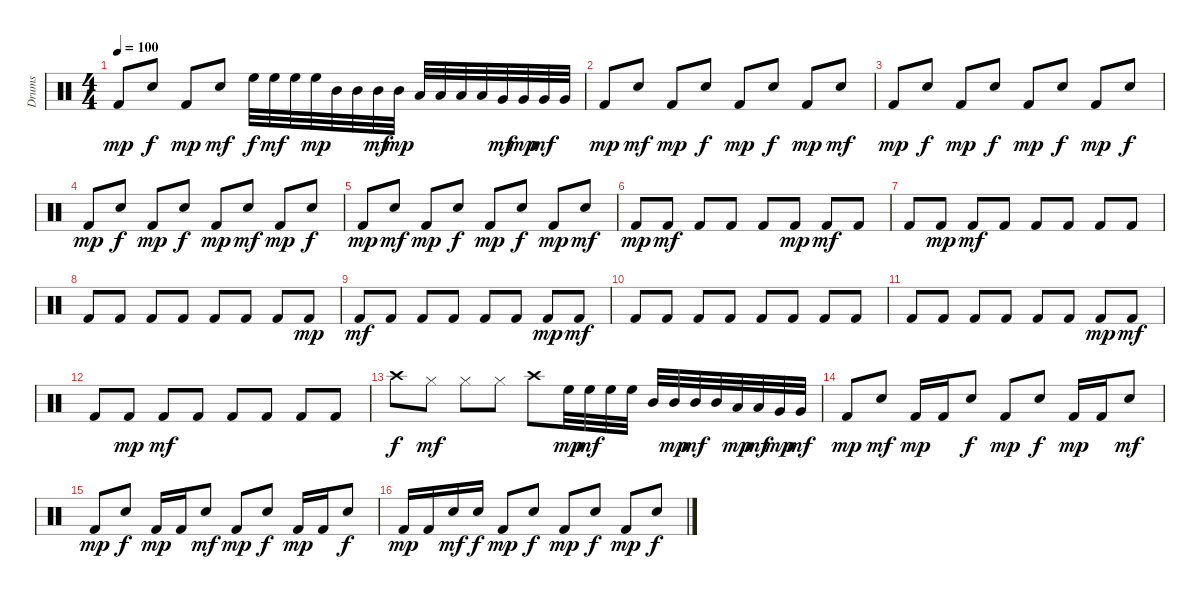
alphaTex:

\track ("Drums" "Drums") {instrument percussion}
\staff {score}
\articulation defaults
\ts (4 4)
\tempo 100
\clef neutral
\ks c "Kick (hit) 2".8{dy mp} "Snare (hit) 2".8{dy f} "Kick (hit) 2".8{dy mp} "Snare (hit) 2".8{dy mf} "High Floor Tom (hit)".32{dy f} "High Floor Tom (hit)".32{dy mf} "High Floor Tom (hit)".32 "High Floor Tom (hit)".32{dy mp} "Mid Tom (hit)".32 "Mid Tom (hit)".32 "Mid Tom (hit)".32{dy mf} "Mid Tom (hit)".32{dy mp} "Low Tom (hit)".32 "Low Tom (hit)".32 "Low Tom (hit)".32 "Low Tom (hit)".32 "Very Low Tom (hit)".32{dy mf} "Very Low Tom (hit)".32{dy mp} "Very Low Tom (hit)".32{dy mf} "Very Low Tom (hit)".32
|
"Kick (hit) 2".8{dy mp} "Snare (hit) 2".8{dy mf} "Kick (hit) 2".8{dy mp} "Snare (hit) 2".8{dy f} "Kick (hit) 2".8{dy mp} "Snare (hit) 2".8{dy f} "Kick (hit) 2".8{dy mp} "Snare (hit) 2".8{dy mf} |
"Kick (hit) 2".8{dy mp} "Snare (hit) 2".8{dy f} "Kick (hit) 2".8{dy mp} "Snare (hit) 2".8{dy f} "Kick (hit) 2".8{dy mp} "Snare (hit) 2".8{dy f} "Kick (hit) 2".8{dy mp} "Snare (hit) 2".8{dy f} |
"Kick (hit) 2".8{dy mp} "Snare (hit) 2".8{dy f} "Kick (hit) 2".8{dy mp} "Snare (hit) 2".8{dy f} "Kick (hit) 2".8{dy mp} "Snare (hit) 2".8{dy mf} "Kick (hit) 2".8{dy mp} "Snare (hit) 2".8{dy f} |
"Kick (hit) 2".8{dy mp} "Snare (hit) 2".8{dy mf} "Kick (hit) 2".8{dy mp} "Snare (hit) 2".8{dy f} "Kick (hit) 2".8{dy mp} "Snare (hit) 2".8{dy f} "Kick (hit) 2".8{dy mp} "Snare (hit) 2".8{dy mf} |
"Kick (hit) 2".8{dy mp} "Kick (hit) 2".8{dy mf} "Kick (hit) 2".8 "Kick (hit) 2".8 "Kick (hit) 2".8 "Kick (hit) 2".8{dy mp} "Kick (hit) 2".8{dy mf} "Kick (hit) 2".8 |
"Kick (hit) 2".8 "Kick (hit) 2".8{dy mp} "Kick (hit) 2".8{dy mf} "Kick (hit) 2".8 "Kick (hit) 2".8 "Kick (hit) 2".8 "Kick (hit) 2".8 "Kick (hit) 2".8 |
"Kick (hit) 2".8 "Kick (hit) 2".8 "Kick (hit) 2".8 "Kick (hit) 2".8 "Kick (hit) 2".8 "Kick (hit) 2".8 "Kick (hit) 2".8 "Kick (hit) 2".8{dy mp} |
"Kick (hit) 2".8{dy mf} "Kick (hit) 2".8 "Kick (hit) 2".8 "Kick (hit) 2".8 "Kick (hit) 2".8 "Kick (hit) 2".8 "Kick (hit) 2".8{dy mp} "Kick (hit) 2".8{dy mf} |
"Kick (hit) 2".8 "Kick (hit) 2".8 "Kick (hit) 2".8 "Kick (hit) 2".8 "Kick (hit) 2".8 "Kick (hit) 2".8 "Kick (hit) 2".8 "Kick (hit) 2".8 |
"Kick (hit) 2".8 "Kick (hit) 2".8 "Kick (hit) 2".8 "Kick (hit) 2".8 "Kick (hit) 2".8 "Kick (hit) 2".8 "Kick (hit) 2".8{dy mp} "Kick (hit) 2".8{dy mf} |
"Kick (hit) 2".8 "Kick (hit) 2".8{dy mp} "Kick (hit) 2".8{dy mf} "Kick (hit) 2".8 "Kick (hit) 2".8 "Kick (hit) 2".8 "Kick (hit) 2".8 "Kick (hit) 2".8 |
"Crash high (hit)".8{dy f} "Hi-Hat (closed)".8{dy mf} "Hi-Hat (closed)".8 "Hi-Hat (closed)".8 "Crash high (hit)".8 "High Floor Tom (hit)".32{dy mp} "High Floor Tom (hit)".32{dy mf} "High Floor Tom (hit)".32 "High Floor Tom (hit)".32 "Mid Tom (hit)".32 "Mid Tom (hit)".32{dy mp} "Mid Tom (hit)".32{dy mf} "Mid Tom (hit)".32 "Low Tom (hit)".32{dy mp} "Low Tom (hit)".32{dy mf} "Very Low Tom (hit)".32{dy mp} "Very Low Tom (hit)".32{dy mf} |
"Kick (hit) 2".8{dy mp} "Snare (hit) 2".8{dy mf} "Kick (hit) 2".16{dy mp} "Kick (hit) 2".16 "Snare (hit) 2".8{dy f} "Kick (hit) 2".8{dy mp} "Snare (hit) 2".8{dy f} "Kick (hit) 2".16{dy mp} "Kick (hit) 2".16 "Snare (hit) 2".8{dy mf} |
"Kick (hit) 2".8{dy mp} "Snare (hit) 2".8{dy f} "Kick (hit) 2".16{dy mp} "Kick (hit) 2".16 "Snare (hit) 2".8{dy mf} "Kick (hit) 2".8{dy mp} "Snare (hit) 2".8{dy f} "Kick (hit) 2".16{dy mp} "Kick (hit) 2".16 "Snare (hit) 2".8{dy f} |
"Kick (hit) 2".16{dy mp} "Kick (hit) 2".16 "Snare (hit) 2".16{dy mf} "Snare (hit) 2".16{dy f} "Kick (hit) 2".8{dy mp} "Snare (hit) 2".8{dy f} "Kick (hit) 2".8{dy mp} "Snare (hit) 2".8{dy f} "Kick (hit) 2".8{dy mp} "Snare (hit) 2".8{dy f}
